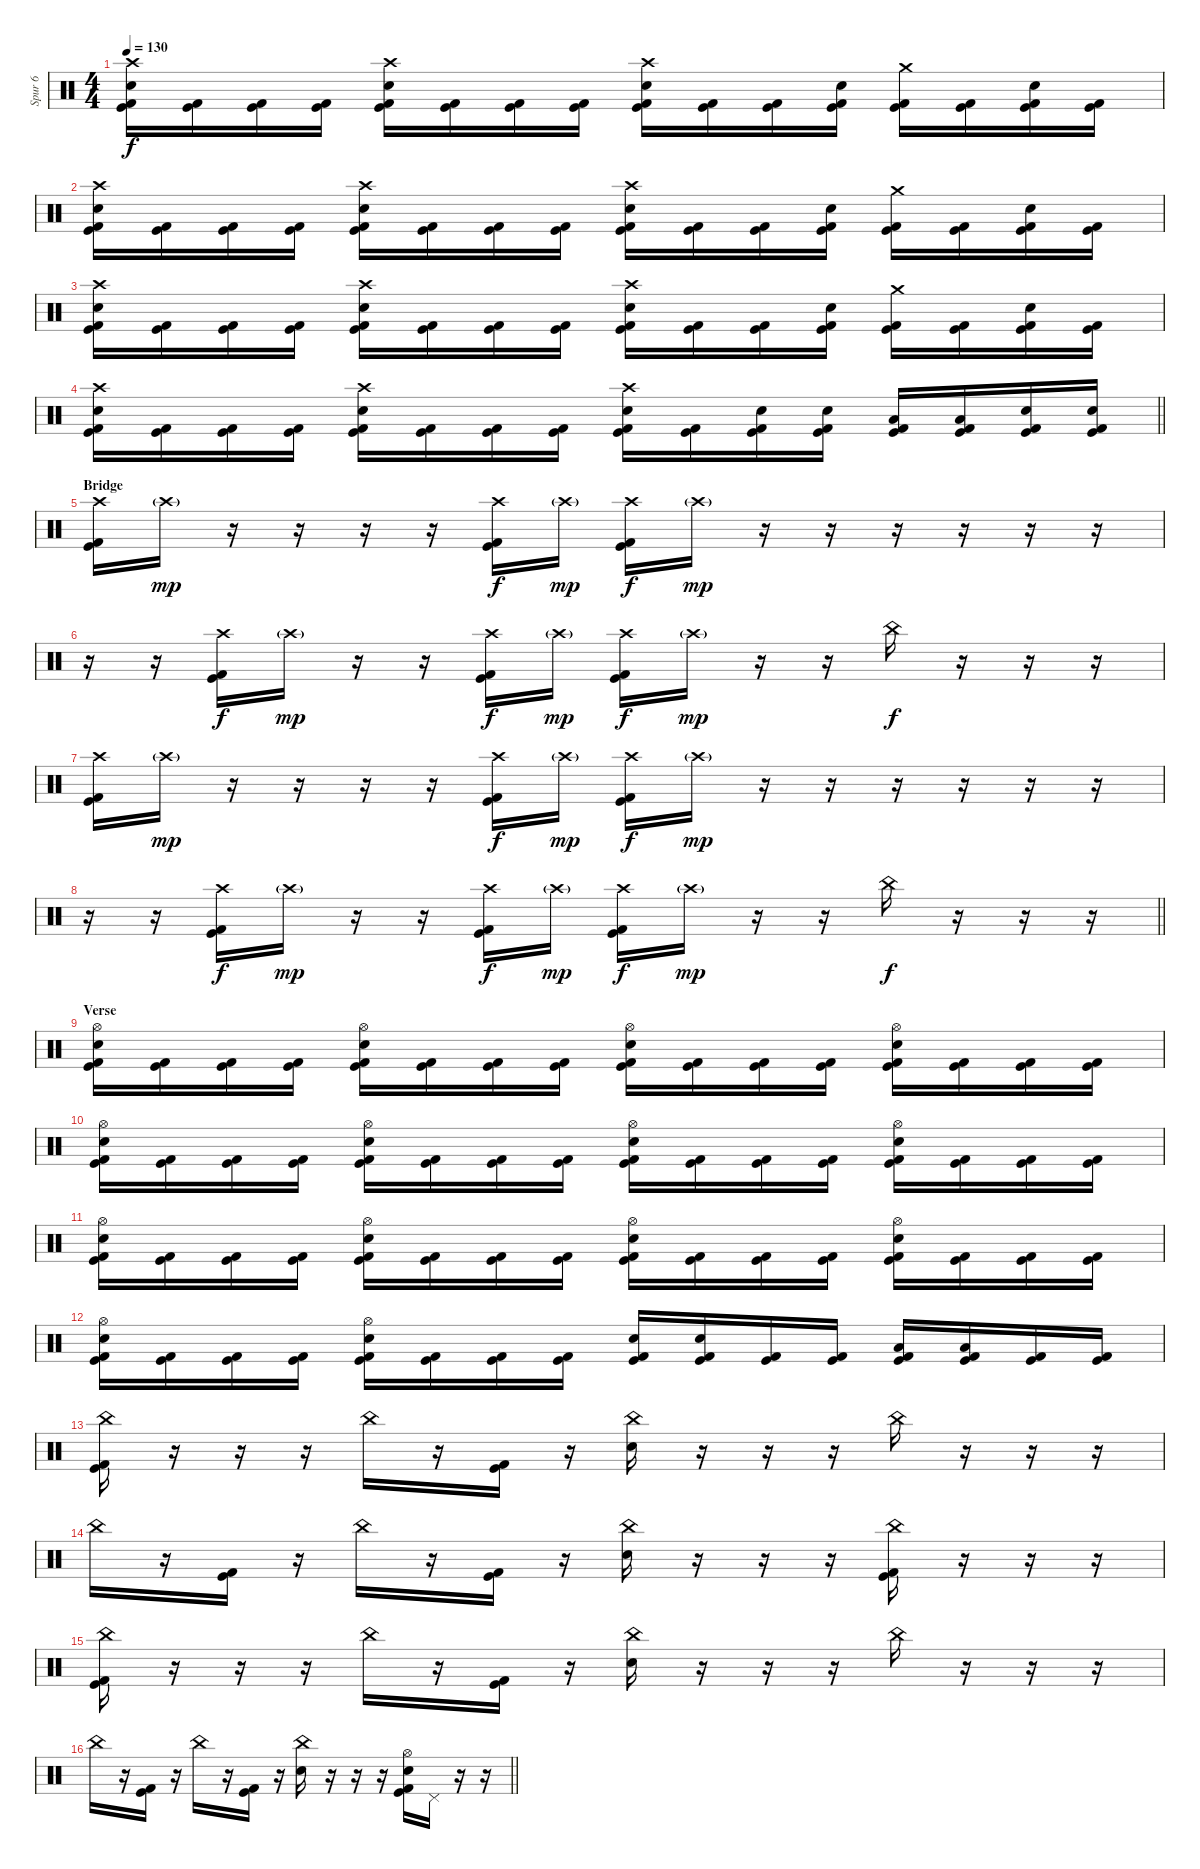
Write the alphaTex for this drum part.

\track ("Spur 6" "Spur 6") {instrument percussion}
\staff {score}
\articulation defaults
\ts (4 4)
\tempo 130
\clef neutral
\ks c
("Crash high (hit)" "Electric Snare (hit)" "Kick (hit)" "Kick (hit) 2").16{dy f} ("Kick (hit)" "Kick (hit) 2").16 ("Kick (hit)" "Kick (hit) 2").16 ("Kick (hit)" "Kick (hit) 2").16 ("Crash high (hit)" "Electric Snare (hit)" "Kick (hit)" "Kick (hit) 2").16 ("Kick (hit)" "Kick (hit) 2").16 ("Kick (hit)" "Kick (hit) 2").16 ("Kick (hit)" "Kick (hit) 2").16 ("Crash high (hit)" "Electric Snare (hit)" "Kick (hit)" "Kick (hit) 2").16 ("Kick (hit)" "Kick (hit) 2").16 ("Kick (hit)" "Kick (hit) 2").16 ("Electric Snare (hit)" "Kick (hit)" "Kick (hit) 2").16 ("Crash medium (hit)" "Kick (hit)" "Kick (hit) 2").16 ("Kick (hit)" "Kick (hit) 2").16 ("Electric Snare (hit)" "Kick (hit)" "Kick (hit) 2").16 ("Kick (hit)" "Kick (hit) 2").16 |
("Crash high (hit)" "Electric Snare (hit)" "Kick (hit)" "Kick (hit) 2").16 ("Kick (hit)" "Kick (hit) 2").16 ("Kick (hit)" "Kick (hit) 2").16 ("Kick (hit)" "Kick (hit) 2").16 ("Crash high (hit)" "Electric Snare (hit)" "Kick (hit)" "Kick (hit) 2").16 ("Kick (hit)" "Kick (hit) 2").16 ("Kick (hit)" "Kick (hit) 2").16 ("Kick (hit)" "Kick (hit) 2").16 ("Crash high (hit)" "Electric Snare (hit)" "Kick (hit)" "Kick (hit) 2").16 ("Kick (hit)" "Kick (hit) 2").16 ("Kick (hit)" "Kick (hit) 2").16 ("Electric Snare (hit)" "Kick (hit)" "Kick (hit) 2").16 ("Crash medium (hit)" "Kick (hit)" "Kick (hit) 2").16 ("Kick (hit)" "Kick (hit) 2").16 ("Electric Snare (hit)" "Kick (hit)" "Kick (hit) 2").16 ("Kick (hit)" "Kick (hit) 2").16 |
("Crash high (hit)" "Electric Snare (hit)" "Kick (hit)" "Kick (hit) 2").16 ("Kick (hit)" "Kick (hit) 2").16 ("Kick (hit)" "Kick (hit) 2").16 ("Kick (hit)" "Kick (hit) 2").16 ("Crash high (hit)" "Electric Snare (hit)" "Kick (hit)" "Kick (hit) 2").16 ("Kick (hit)" "Kick (hit) 2").16 ("Kick (hit)" "Kick (hit) 2").16 ("Kick (hit)" "Kick (hit) 2").16 ("Crash high (hit)" "Electric Snare (hit)" "Kick (hit)" "Kick (hit) 2").16 ("Kick (hit)" "Kick (hit) 2").16 ("Kick (hit)" "Kick (hit) 2").16 ("Electric Snare (hit)" "Kick (hit)" "Kick (hit) 2").16 ("Crash medium (hit)" "Kick (hit)" "Kick (hit) 2").16 ("Kick (hit)" "Kick (hit) 2").16 ("Electric Snare (hit)" "Kick (hit)" "Kick (hit) 2").16 ("Kick (hit)" "Kick (hit) 2").16 |
\barLineRight lightlight
("Crash high (hit)" "Electric Snare (hit)" "Kick (hit)" "Kick (hit) 2").16 ("Kick (hit)" "Kick (hit) 2").16 ("Kick (hit)" "Kick (hit) 2").16 ("Kick (hit)" "Kick (hit) 2").16 ("Crash high (hit)" "Electric Snare (hit)" "Kick (hit)" "Kick (hit) 2").16 ("Kick (hit)" "Kick (hit) 2").16 ("Kick (hit)" "Kick (hit) 2").16 ("Kick (hit)" "Kick (hit) 2").16 ("Crash high (hit)" "Electric Snare (hit)" "Kick (hit)" "Kick (hit) 2").16 ("Kick (hit)" "Kick (hit) 2").16 ("Electric Snare (hit)" "Kick (hit)" "Kick (hit) 2").16 ("Electric Snare (hit)" "Kick (hit)" "Kick (hit) 2").16 ("Low Tom (hit)" "Kick (hit)" "Kick (hit) 2").16 ("Low Tom (hit)" "Kick (hit)" "Kick (hit) 2").16 ("Electric Snare (hit)" "Kick (hit)" "Kick (hit) 2").16 ("Electric Snare (hit)" "Kick (hit)" "Kick (hit) 2").16 |
\section ("" "Bridge")
("Crash high (hit)" "Kick (hit)" "Kick (hit) 2").16 "Crash high (hit)"{g}.16{dy mp} r.16 r.16 r.16 r.16 ("Crash high (hit)" "Kick (hit)" "Kick (hit) 2").16{dy f} "Crash high (hit)"{g}.16{dy mp} ("Crash high (hit)" "Kick (hit)" "Kick (hit) 2").16{dy f} "Crash high (hit)"{g}.16{dy mp} r.16 r.16 r.16 r.16 r.16 r.16 |
r.16 r.16 ("Crash high (hit)" "Kick (hit)" "Kick (hit) 2").16{dy f} "Crash high (hit)"{g}.16{dy mp} r.16 r.16 ("Crash high (hit)" "Kick (hit)" "Kick (hit) 2").16{dy f} "Crash high (hit)"{g}.16{dy mp} ("Crash high (hit)" "Kick (hit)" "Kick (hit) 2").16{dy f} "Crash high (hit)"{g}.16{dy mp} r.16 r.16 "China (hit)".16{dy f} r.16 r.16 r.16 |
("Crash high (hit)" "Kick (hit)" "Kick (hit) 2").16 "Crash high (hit)"{g}.16{dy mp} r.16 r.16 r.16 r.16 ("Crash high (hit)" "Kick (hit)" "Kick (hit) 2").16{dy f} "Crash high (hit)"{g}.16{dy mp} ("Crash high (hit)" "Kick (hit)" "Kick (hit) 2").16{dy f} "Crash high (hit)"{g}.16{dy mp} r.16 r.16 r.16 r.16 r.16 r.16 |
\barLineRight lightlight
r.16 r.16 ("Crash high (hit)" "Kick (hit)" "Kick (hit) 2").16{dy f} "Crash high (hit)"{g}.16{dy mp} r.16 r.16 ("Crash high (hit)" "Kick (hit)" "Kick (hit) 2").16{dy f} "Crash high (hit)"{g}.16{dy mp} ("Crash high (hit)" "Kick (hit)" "Kick (hit) 2").16{dy f} "Crash high (hit)"{g}.16{dy mp} r.16 r.16 "China (hit)".16{dy f} r.16 r.16 r.16 |
\section ("" "Verse")
("Hi-Hat (open)" "Electric Snare (hit)" "Kick (hit)" "Kick (hit) 2").16 ("Kick (hit)" "Kick (hit) 2").16 ("Kick (hit)" "Kick (hit) 2").16 ("Kick (hit)" "Kick (hit) 2").16 ("Hi-Hat (open)" "Electric Snare (hit)" "Kick (hit)" "Kick (hit) 2").16 ("Kick (hit)" "Kick (hit) 2").16 ("Kick (hit)" "Kick (hit) 2").16 ("Kick (hit)" "Kick (hit) 2").16 ("Hi-Hat (open)" "Electric Snare (hit)" "Kick (hit)" "Kick (hit) 2").16 ("Kick (hit)" "Kick (hit) 2").16 ("Kick (hit)" "Kick (hit) 2").16 ("Kick (hit)" "Kick (hit) 2").16 ("Hi-Hat (open)" "Electric Snare (hit)" "Kick (hit)" "Kick (hit) 2").16 ("Kick (hit)" "Kick (hit) 2").16 ("Kick (hit)" "Kick (hit) 2").16 ("Kick (hit)" "Kick (hit) 2").16 |
("Hi-Hat (open)" "Electric Snare (hit)" "Kick (hit)" "Kick (hit) 2").16 ("Kick (hit)" "Kick (hit) 2").16 ("Kick (hit)" "Kick (hit) 2").16 ("Kick (hit)" "Kick (hit) 2").16 ("Hi-Hat (open)" "Electric Snare (hit)" "Kick (hit)" "Kick (hit) 2").16 ("Kick (hit)" "Kick (hit) 2").16 ("Kick (hit)" "Kick (hit) 2").16 ("Kick (hit)" "Kick (hit) 2").16 ("Hi-Hat (open)" "Electric Snare (hit)" "Kick (hit)" "Kick (hit) 2").16 ("Kick (hit)" "Kick (hit) 2").16 ("Kick (hit)" "Kick (hit) 2").16 ("Kick (hit)" "Kick (hit) 2").16 ("Hi-Hat (open)" "Electric Snare (hit)" "Kick (hit)" "Kick (hit) 2").16 ("Kick (hit)" "Kick (hit) 2").16 ("Kick (hit)" "Kick (hit) 2").16 ("Kick (hit)" "Kick (hit) 2").16 |
("Hi-Hat (open)" "Electric Snare (hit)" "Kick (hit)" "Kick (hit) 2").16 ("Kick (hit)" "Kick (hit) 2").16 ("Kick (hit)" "Kick (hit) 2").16 ("Kick (hit)" "Kick (hit) 2").16 ("Hi-Hat (open)" "Electric Snare (hit)" "Kick (hit)" "Kick (hit) 2").16 ("Kick (hit)" "Kick (hit) 2").16 ("Kick (hit)" "Kick (hit) 2").16 ("Kick (hit)" "Kick (hit) 2").16 ("Hi-Hat (open)" "Electric Snare (hit)" "Kick (hit)" "Kick (hit) 2").16 ("Kick (hit)" "Kick (hit) 2").16 ("Kick (hit)" "Kick (hit) 2").16 ("Kick (hit)" "Kick (hit) 2").16 ("Hi-Hat (open)" "Electric Snare (hit)" "Kick (hit)" "Kick (hit) 2").16 ("Kick (hit)" "Kick (hit) 2").16 ("Kick (hit)" "Kick (hit) 2").16 ("Kick (hit)" "Kick (hit) 2").16 |
("Hi-Hat (open)" "Electric Snare (hit)" "Kick (hit)" "Kick (hit) 2").16 ("Kick (hit)" "Kick (hit) 2").16 ("Kick (hit)" "Kick (hit) 2").16 ("Kick (hit)" "Kick (hit) 2").16 ("Hi-Hat (open)" "Electric Snare (hit)" "Kick (hit)" "Kick (hit) 2").16 ("Kick (hit)" "Kick (hit) 2").16 ("Kick (hit)" "Kick (hit) 2").16 ("Kick (hit)" "Kick (hit) 2").16 ("Electric Snare (hit)" "Kick (hit)" "Kick (hit) 2").16 ("Electric Snare (hit)" "Kick (hit)" "Kick (hit) 2").16 ("Kick (hit)" "Kick (hit) 2").16 ("Kick (hit)" "Kick (hit) 2").16 ("Low Floor Tom (hit)" "Kick (hit)" "Kick (hit) 2").16 ("Low Tom (hit)" "Kick (hit)" "Kick (hit) 2").16 ("Kick (hit)" "Kick (hit) 2").16 ("Kick (hit)" "Kick (hit) 2").16 |
("China (hit)" "Kick (hit)" "Kick (hit) 2").16 r.16 r.16 r.16 "China (hit)".16 r.16 ("Kick (hit)" "Kick (hit) 2").16 r.16 ("China (hit)" "Electric Snare (hit)").16 r.16 r.16 r.16 "China (hit)".16 r.16 r.16 r.16 |
"China (hit)".16 r.16 ("Kick (hit)" "Kick (hit) 2").16 r.16 "China (hit)".16 r.16 ("Kick (hit)" "Kick (hit) 2").16 r.16 ("China (hit)" "Electric Snare (hit)").16 r.16 r.16 r.16 ("China (hit)" "Kick (hit)" "Kick (hit) 2").16 r.16 r.16 r.16 |
("China (hit)" "Kick (hit)" "Kick (hit) 2").16 r.16 r.16 r.16 "China (hit)".16 r.16 ("Kick (hit)" "Kick (hit) 2").16 r.16 ("China (hit)" "Electric Snare (hit)").16 r.16 r.16 r.16 "China (hit)".16 r.16 r.16 r.16 |
\barLineRight lightlight "China (hit)".16
r.16 ("Kick (hit)" "Kick (hit) 2").16 r.16 "China (hit)".16 r.16 ("Kick (hit)" "Kick (hit) 2").16 r.16 ("China (hit)" "Electric Snare (hit)").16 r.16 r.16 r.16 ("Hi-Hat (open)" "Electric Snare (hit)" "Kick (hit)" "Kick (hit) 2").16 "Pedal Hi-Hat (hit)".16 r.16 r.16
